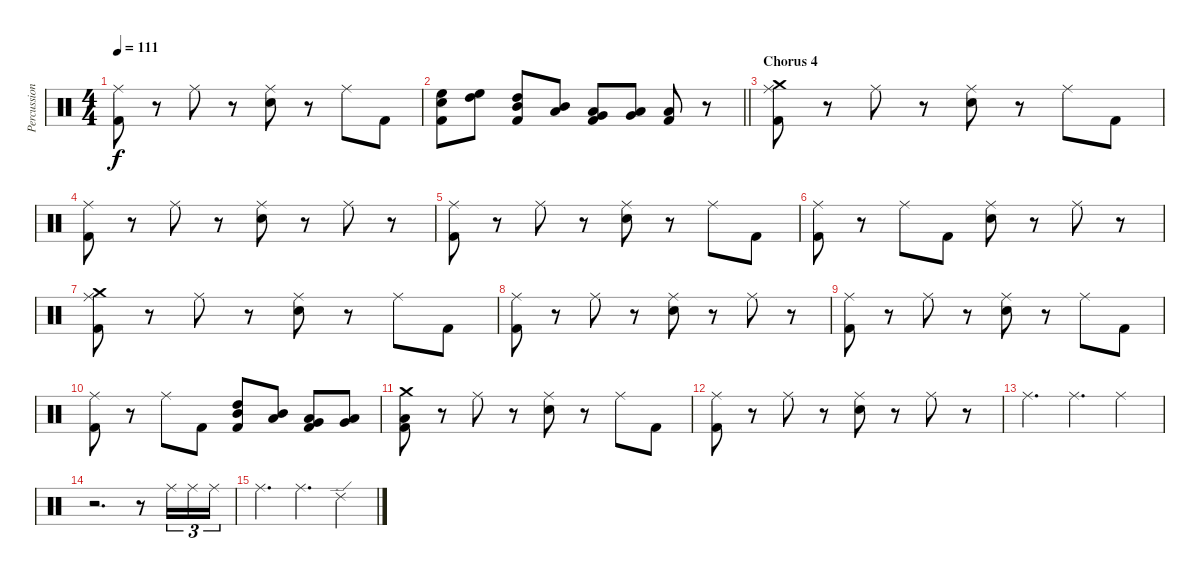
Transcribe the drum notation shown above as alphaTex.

\track ("Percussion" "Percussion") {instrument percussion}
\staff {score}
\articulation defaults
\ts (4 4)
\tempo 111
\clef neutral
\ks c
("Ride (middle)" "Kick (hit) 2").8{dy f} r.8 "Ride (middle)".8 r.8 ("Ride (middle)" "Snare (hit) 2").8 r.8 "Ride (middle)".8 "Kick (hit) 2".8 |
\barLineRight lightlight
("Snare (hit) 2" "High Floor Tom (hit)" "Kick (hit) 2").8 ("High Floor Tom (hit)" "High Tom (hit)").8 ("High Tom (hit)" "Mid Tom (hit)" "Kick (hit) 2").8 ("Mid Tom (hit)" "Low Tom (hit)").8 ("Low Tom (hit)" "Very Low Tom (hit)" "Kick (hit) 2").8 ("Very Low Tom (hit)" "Low Floor Tom (hit)").8 ("Low Floor Tom (hit)" "Kick (hit) 2").8 r.8 |
\section ("" "Chorus 4")
("Ride (middle)" "Crash medium (hit)" "Kick (hit) 2").8 r.8 "Ride (middle)".8 r.8 ("Ride (middle)" "Snare (hit) 2").8 r.8 "Ride (middle)".8 "Kick (hit) 2".8 |
("Ride (middle)" "Kick (hit) 2").8 r.8 "Ride (middle)".8 r.8 ("Ride (middle)" "Snare (hit) 2").8 r.8 "Ride (middle)".8 r.8 |
("Ride (middle)" "Kick (hit) 2").8 r.8 "Ride (middle)".8 r.8 ("Ride (middle)" "Snare (hit) 2").8 r.8 "Ride (middle)".8 "Kick (hit) 2".8 |
("Ride (middle)" "Kick (hit) 2").8 r.8 "Ride (middle)".8 "Kick (hit) 2".8 ("Ride (middle)" "Snare (hit) 2").8 r.8 "Ride (middle)".8 r.8 |
("Ride (middle)" "Crash medium (hit)" "Kick (hit) 2").8 r.8 "Ride (middle)".8 r.8 ("Ride (middle)" "Snare (hit) 2").8 r.8 "Ride (middle)".8 "Kick (hit) 2".8 |
("Ride (middle)" "Kick (hit) 2").8 r.8 "Ride (middle)".8 r.8 ("Ride (middle)" "Snare (hit) 2").8 r.8 "Ride (middle)".8 r.8 |
("Ride (middle)" "Kick (hit) 2").8 r.8 "Ride (middle)".8 r.8 ("Ride (middle)" "Snare (hit) 2").8 r.8 "Ride (middle)".8 "Kick (hit) 2".8 |
("Ride (middle)" "Kick (hit) 2").8 r.8 "Ride (middle)".8 "Kick (hit) 2".8 ("High Tom (hit)" "Mid Tom (hit)" "Kick (hit) 2").8 ("Mid Tom (hit)" "Low Tom (hit)").8 ("Low Tom (hit)" "Very Low Tom (hit)" "Kick (hit) 2").8 ("Very Low Tom (hit)" "Low Floor Tom (hit)").8 |
("Crash medium (hit)" "Low Floor Tom (hit)" "Kick (hit) 2").8 r.8 "Ride (middle)".8 r.8 ("Ride (middle)" "Snare (hit) 2").8 r.8 "Ride (middle)".8 "Kick (hit) 2".8 |
("Ride (middle)" "Kick (hit) 2").8 r.8 "Ride (middle)".8 r.8 ("Ride (middle)" "Snare (hit) 2").8 r.8 "Ride (middle)".8 r.8 |
"Ride (middle)".4{d} "Ride (middle)".4{d} "Ride (middle)".4 |
r.2{d} r.8 "Ride (middle)".16{tu (3 2)} "Ride (middle)".16{tu (3 2)} "Ride (middle)".16{tu (3 2)} |
"Ride (middle)".4{d} "Ride (middle)".4{d} "Ride (edge) 2".4
